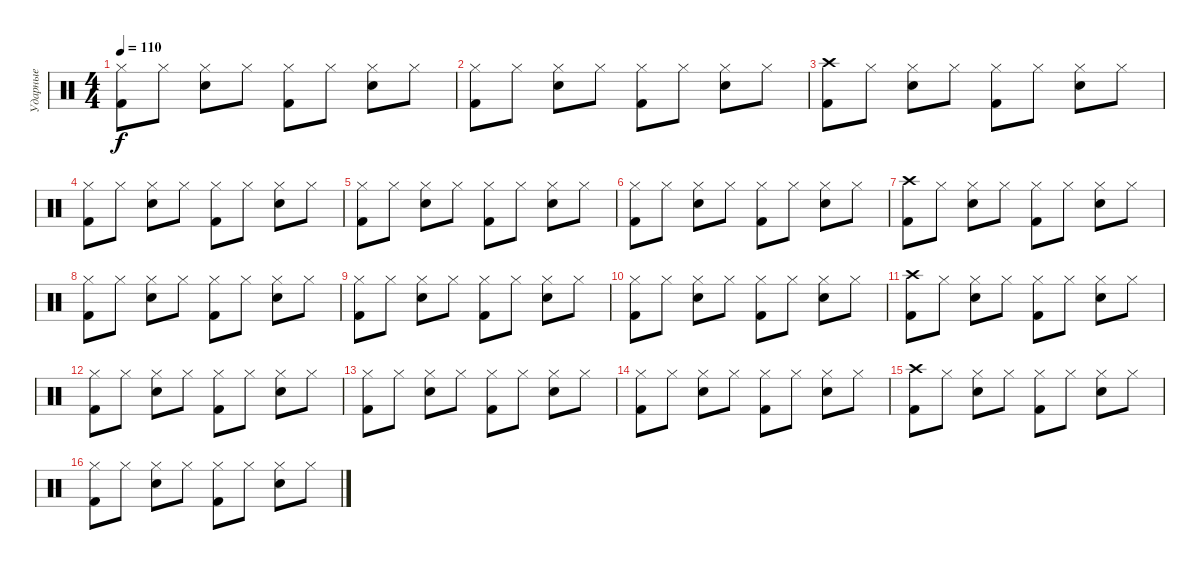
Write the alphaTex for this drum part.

\track ("Ударные" "Ударные") {instrument percussion}
\staff {score}
\articulation defaults
\ts (4 4)
\tempo 110
\clef neutral
\ks c
("Hi-Hat (closed)" "Kick (hit) 2").8{dy f} "Hi-Hat (closed)".8 ("Hi-Hat (closed)" "Electric Snare (hit)").8 "Hi-Hat (closed)".8 ("Hi-Hat (closed)" "Kick (hit) 2").8 "Hi-Hat (closed)".8 ("Hi-Hat (closed)" "Electric Snare (hit)").8 "Hi-Hat (closed)".8 |
("Hi-Hat (closed)" "Kick (hit) 2").8 "Hi-Hat (closed)".8 ("Hi-Hat (closed)" "Electric Snare (hit)").8 "Hi-Hat (closed)".8 ("Hi-Hat (closed)" "Kick (hit) 2").8 "Hi-Hat (closed)".8 ("Hi-Hat (closed)" "Electric Snare (hit)").8 "Hi-Hat (closed)".8 |
("Crash high (hit)" "Kick (hit) 2").8 "Hi-Hat (closed)".8 ("Hi-Hat (closed)" "Electric Snare (hit)").8 "Hi-Hat (closed)".8 ("Hi-Hat (closed)" "Kick (hit) 2").8 "Hi-Hat (closed)".8 ("Hi-Hat (closed)" "Electric Snare (hit)").8 "Hi-Hat (closed)".8 |
("Hi-Hat (closed)" "Kick (hit) 2").8 "Hi-Hat (closed)".8 ("Hi-Hat (closed)" "Electric Snare (hit)").8 "Hi-Hat (closed)".8 ("Hi-Hat (closed)" "Kick (hit) 2").8 "Hi-Hat (closed)".8 ("Hi-Hat (closed)" "Electric Snare (hit)").8 "Hi-Hat (closed)".8 |
("Hi-Hat (closed)" "Kick (hit) 2").8 "Hi-Hat (closed)".8 ("Hi-Hat (closed)" "Electric Snare (hit)").8 "Hi-Hat (closed)".8 ("Hi-Hat (closed)" "Kick (hit) 2").8 "Hi-Hat (closed)".8 ("Hi-Hat (closed)" "Electric Snare (hit)").8 "Hi-Hat (closed)".8 |
("Hi-Hat (closed)" "Kick (hit) 2").8 "Hi-Hat (closed)".8 ("Hi-Hat (closed)" "Electric Snare (hit)").8 "Hi-Hat (closed)".8 ("Hi-Hat (closed)" "Kick (hit) 2").8 "Hi-Hat (closed)".8 ("Hi-Hat (closed)" "Electric Snare (hit)").8 "Hi-Hat (closed)".8 |
("Crash high (hit)" "Kick (hit) 2").8 "Hi-Hat (closed)".8 ("Hi-Hat (closed)" "Electric Snare (hit)").8 "Hi-Hat (closed)".8 ("Hi-Hat (closed)" "Kick (hit) 2").8 "Hi-Hat (closed)".8 ("Hi-Hat (closed)" "Electric Snare (hit)").8 "Hi-Hat (closed)".8 |
("Hi-Hat (closed)" "Kick (hit) 2").8 "Hi-Hat (closed)".8 ("Hi-Hat (closed)" "Electric Snare (hit)").8 "Hi-Hat (closed)".8 ("Hi-Hat (closed)" "Kick (hit) 2").8 "Hi-Hat (closed)".8 ("Hi-Hat (closed)" "Electric Snare (hit)").8 "Hi-Hat (closed)".8 |
("Hi-Hat (closed)" "Kick (hit) 2").8 "Hi-Hat (closed)".8 ("Hi-Hat (closed)" "Electric Snare (hit)").8 "Hi-Hat (closed)".8 ("Hi-Hat (closed)" "Kick (hit) 2").8 "Hi-Hat (closed)".8 ("Hi-Hat (closed)" "Electric Snare (hit)").8 "Hi-Hat (closed)".8 |
("Hi-Hat (closed)" "Kick (hit) 2").8 "Hi-Hat (closed)".8 ("Hi-Hat (closed)" "Electric Snare (hit)").8 "Hi-Hat (closed)".8 ("Hi-Hat (closed)" "Kick (hit) 2").8 "Hi-Hat (closed)".8 ("Hi-Hat (closed)" "Electric Snare (hit)").8 "Hi-Hat (closed)".8 |
("Crash high (hit)" "Kick (hit) 2").8 "Hi-Hat (closed)".8 ("Hi-Hat (closed)" "Electric Snare (hit)").8 "Hi-Hat (closed)".8 ("Hi-Hat (closed)" "Kick (hit) 2").8 "Hi-Hat (closed)".8 ("Hi-Hat (closed)" "Electric Snare (hit)").8 "Hi-Hat (closed)".8 |
("Hi-Hat (closed)" "Kick (hit) 2").8 "Hi-Hat (closed)".8 ("Hi-Hat (closed)" "Electric Snare (hit)").8 "Hi-Hat (closed)".8 ("Hi-Hat (closed)" "Kick (hit) 2").8 "Hi-Hat (closed)".8 ("Hi-Hat (closed)" "Electric Snare (hit)").8 "Hi-Hat (closed)".8 |
("Hi-Hat (closed)" "Kick (hit) 2").8 "Hi-Hat (closed)".8 ("Hi-Hat (closed)" "Electric Snare (hit)").8 "Hi-Hat (closed)".8 ("Hi-Hat (closed)" "Kick (hit) 2").8 "Hi-Hat (closed)".8 ("Hi-Hat (closed)" "Electric Snare (hit)").8 "Hi-Hat (closed)".8 |
("Hi-Hat (closed)" "Kick (hit) 2").8 "Hi-Hat (closed)".8 ("Hi-Hat (closed)" "Electric Snare (hit)").8 "Hi-Hat (closed)".8 ("Hi-Hat (closed)" "Kick (hit) 2").8 "Hi-Hat (closed)".8 ("Hi-Hat (closed)" "Electric Snare (hit)").8 "Hi-Hat (closed)".8 |
("Crash high (hit)" "Kick (hit) 2").8 "Hi-Hat (closed)".8 ("Hi-Hat (closed)" "Electric Snare (hit)").8 "Hi-Hat (closed)".8 ("Hi-Hat (closed)" "Kick (hit) 2").8 "Hi-Hat (closed)".8 ("Hi-Hat (closed)" "Electric Snare (hit)").8 "Hi-Hat (closed)".8 |
("Hi-Hat (closed)" "Kick (hit) 2").8 "Hi-Hat (closed)".8 ("Hi-Hat (closed)" "Electric Snare (hit)").8 "Hi-Hat (closed)".8 ("Hi-Hat (closed)" "Kick (hit) 2").8 "Hi-Hat (closed)".8 ("Hi-Hat (closed)" "Electric Snare (hit)").8 "Hi-Hat (closed)".8
